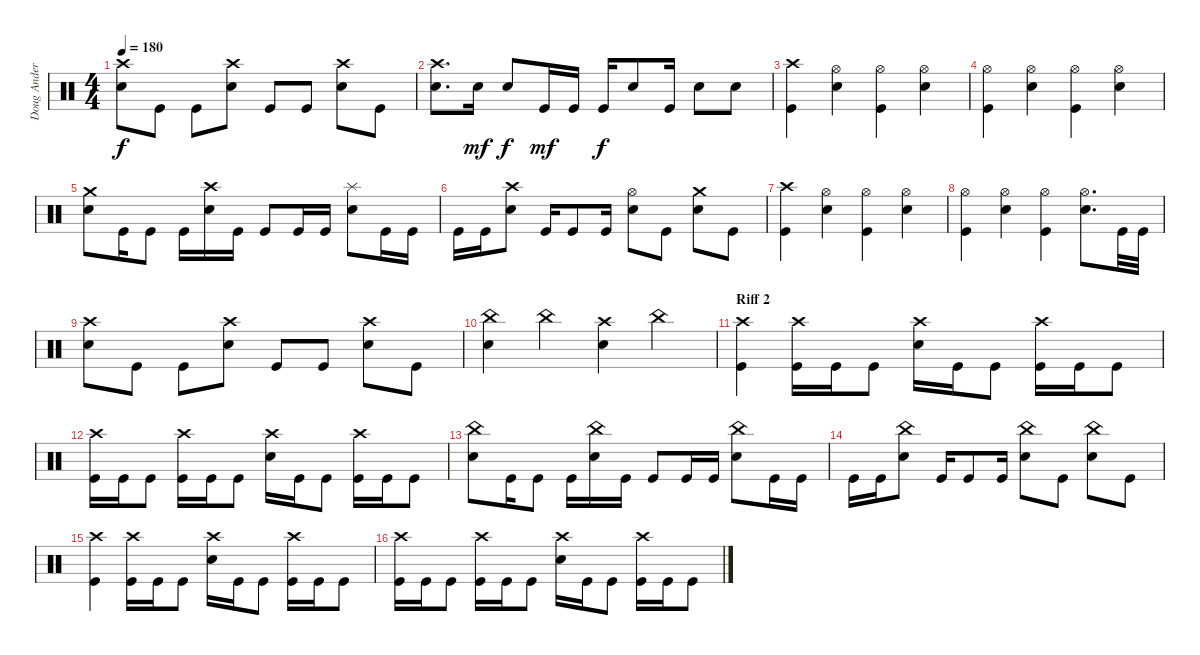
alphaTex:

\track ("Doug Anderson" "Doug Ander") {instrument percussion}
\staff {score}
\articulation defaults
\ts (4 4)
\tempo 180
\clef neutral
\ks c
("Snare (hit) 2" "Crash high (hit)").8{dy f} "Kick (hit)".8 "Kick (hit)".8 ("Snare (hit) 2" "Crash high (hit)").8 "Kick (hit)".8 "Kick (hit)".8 ("Snare (hit) 2" "Crash high (hit)").8 "Kick (hit)".8 |
("Snare (hit) 2" "Crash high (hit)").8{d} "Snare (hit) 2".16{dy mf} "Snare (hit) 2".8{dy f} "Kick (hit)".16{dy mf} "Kick (hit)".16 "Kick (hit)".16{dy f} "Snare (hit) 2".8 "Kick (hit)".16 "Snare (hit) 2".8 "Snare (hit) 2".8 |
("Kick (hit)" "Crash high (hit)").4 ("Snare (hit) 2" "Hi-Hat (open)").4 ("Kick (hit)" "Hi-Hat (open)").4 ("Snare (hit) 2" "Hi-Hat (open)").4 |
("Kick (hit)" "Hi-Hat (open)").4 ("Snare (hit) 2" "Hi-Hat (open)").4 ("Kick (hit)" "Hi-Hat (open)").4 ("Snare (hit) 2" "Hi-Hat (open)").4 |
("Snare (hit) 2" "Crash medium (hit)").8 "Kick (hit)".16 "Kick (hit)".8 "Kick (hit)".16 ("Snare (hit) 2" "Crash high (hit)").16 "Kick (hit)".16 "Kick (hit)".8 "Kick (hit)".16 "Kick (hit)".16 ("Snare (hit) 2" "Splash (hit)").8 "Kick (hit)".16 "Kick (hit)".16 |
"Kick (hit)".16 "Kick (hit)".16 ("Snare (hit) 2" "Crash high (hit)").8 "Kick (hit)".16 "Kick (hit)".8 "Kick (hit)".16 ("Snare (hit) 2" "Hi-Hat (open)").8 "Kick (hit)".8 ("Snare (hit) 2" "Crash medium (hit)").8 "Kick (hit)".8 |
("Kick (hit)" "Crash high (hit)").4 ("Snare (hit) 2" "Hi-Hat (open)").4 ("Kick (hit)" "Hi-Hat (open)").4 ("Snare (hit) 2" "Hi-Hat (open)").4 |
("Kick (hit)" "Hi-Hat (open)").4 ("Snare (hit) 2" "Hi-Hat (open)").4 ("Kick (hit)" "Hi-Hat (open)").4 ("Snare (hit) 2" "Hi-Hat (open)").8{d} "Kick (hit)".32 "Kick (hit)".32 |
("Snare (hit) 2" "Crash high (hit)").8 "Kick (hit)".8 "Kick (hit)".8 ("Snare (hit) 2" "Crash high (hit)").8 "Kick (hit)".8 "Kick (hit)".8 ("Snare (hit) 2" "Crash high (hit)").8 "Kick (hit)".8 |
("Snare (hit) 2" "China (hit)").4 "China (hit)".4 ("Snare (hit) 2" "Crash high (hit)").4 "China (hit)".4 |
\section ("" "Riff 2")
("Kick (hit)" "Crash high (hit)").4 ("Kick (hit)" "Crash high (hit)").16 "Kick (hit)".16 "Kick (hit)".8 ("Snare (hit) 2" "Crash high (hit)").16 "Kick (hit)".16 "Kick (hit)".8 ("Kick (hit)" "Crash high (hit)").16 "Kick (hit)".16 "Kick (hit)".8 |
("Kick (hit)" "Crash high (hit)").16 "Kick (hit)".16 "Kick (hit)".8 ("Kick (hit)" "Crash high (hit)").16 "Kick (hit)".16 "Kick (hit)".8 ("Snare (hit) 2" "Crash high (hit)").16 "Kick (hit)".16 "Kick (hit)".8 ("Kick (hit)" "Crash high (hit)").16 "Kick (hit)".16 "Kick (hit)".8 |
("Snare (hit) 2" "China (hit)").8 "Kick (hit)".16 "Kick (hit)".8 "Kick (hit)".16 ("Snare (hit) 2" "China (hit)").16 "Kick (hit)".16 "Kick (hit)".8 "Kick (hit)".16 "Kick (hit)".16 ("Snare (hit) 2" "China (hit)").8 "Kick (hit)".16 "Kick (hit)".16 |
"Kick (hit)".16 "Kick (hit)".16 ("Snare (hit) 2" "China (hit)").8 "Kick (hit)".16 "Kick (hit)".8 "Kick (hit)".16 ("Snare (hit) 2" "China (hit)").8 "Kick (hit)".8 ("Snare (hit) 2" "China (hit)").8 "Kick (hit)".8 |
("Kick (hit)" "Crash high (hit)").4 ("Kick (hit)" "Crash high (hit)").16 "Kick (hit)".16 "Kick (hit)".8 ("Snare (hit) 2" "Crash high (hit)").16 "Kick (hit)".16 "Kick (hit)".8 ("Kick (hit)" "Crash high (hit)").16 "Kick (hit)".16 "Kick (hit)".8 |
("Kick (hit)" "Crash high (hit)").16 "Kick (hit)".16 "Kick (hit)".8 ("Kick (hit)" "Crash high (hit)").16 "Kick (hit)".16 "Kick (hit)".8 ("Snare (hit) 2" "Crash high (hit)").16 "Kick (hit)".16 "Kick (hit)".8 ("Kick (hit)" "Crash high (hit)").16 "Kick (hit)".16 "Kick (hit)".8
